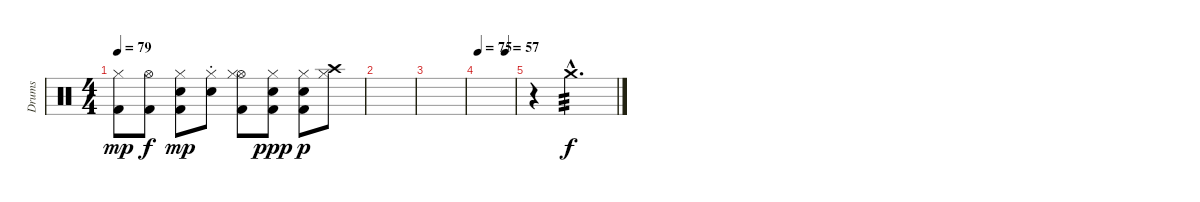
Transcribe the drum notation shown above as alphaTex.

\track ("Drums" "Drums") {instrument percussion}
\staff {score}
\articulation defaults
\ts (4 4)
\tempo 79
\clef neutral
\ks c
("Hi-Hat (closed)" "Kick (hit) 2").8{dy mp} ("Hi-Hat (open)" "Kick (hit) 2").8{dy f} ("Snare (hit) 2" "Hi-Hat (closed)" "Kick (hit) 2").8{dy mp} ("Snare (hit) 2" "Hi-Hat (closed)"{st}).8 ("Hi-Hat (open)" "Hi-Hat (closed)" "Kick (hit) 2").8 ("Snare (hit) 2" "Hi-Hat (closed)" "Kick (hit) 2").8{dy ppp} ("Snare (hit) 2" "Hi-Hat (closed)" "Kick (hit) 2").8{dy p} ("Crash high (hit)" "Hi-Hat (closed)").8 |
|
|
\tempo 75
\tempo (57 0.75)
|
r.4 "Crash medium (hit)"{hac}.2{d tp 3 dy f}
